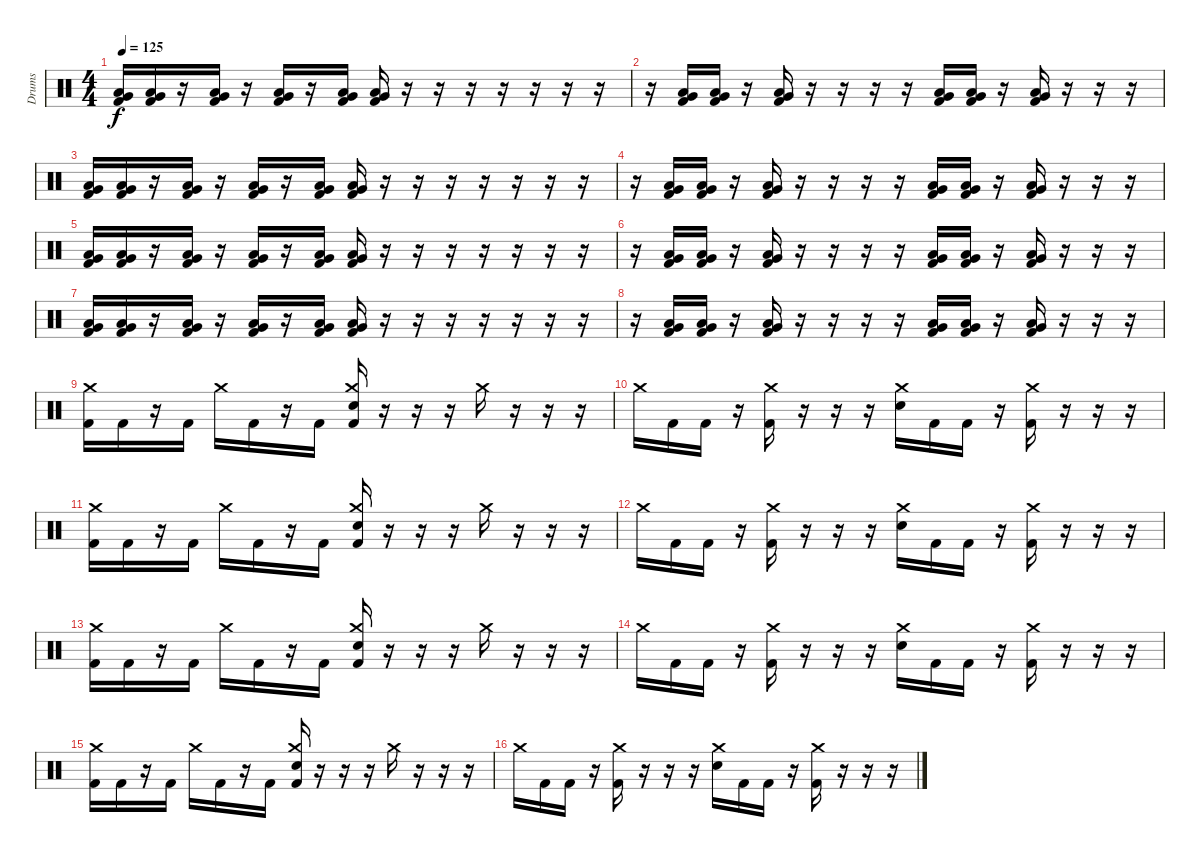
\track ("Drums" "Drums") {instrument percussion}
\staff {score}
\articulation defaults
\ts (4 4)
\tempo 125
\clef neutral
\ks c
("Very Low Tom (hit)" "Low Floor Tom (hit)" "Kick (hit) 2").16{dy f} ("Very Low Tom (hit)" "Low Floor Tom (hit)" "Kick (hit) 2").16 r.16 ("Very Low Tom (hit)" "Low Floor Tom (hit)" "Kick (hit) 2").16 r.16 ("Very Low Tom (hit)" "Low Floor Tom (hit)" "Kick (hit) 2").16 r.16 ("Very Low Tom (hit)" "Low Floor Tom (hit)" "Kick (hit) 2").16 ("Very Low Tom (hit)" "Low Floor Tom (hit)" "Kick (hit) 2").16 r.16 r.16 r.16 r.16 r.16 r.16 r.16 |
r.16 ("Very Low Tom (hit)" "Low Floor Tom (hit)" "Kick (hit) 2").16 ("Very Low Tom (hit)" "Low Floor Tom (hit)" "Kick (hit) 2").16 r.16 ("Very Low Tom (hit)" "Low Floor Tom (hit)" "Kick (hit) 2").16 r.16 r.16 r.16 r.16 ("Very Low Tom (hit)" "Low Floor Tom (hit)" "Kick (hit) 2").16 ("Very Low Tom (hit)" "Low Floor Tom (hit)" "Kick (hit) 2").16 r.16 ("Very Low Tom (hit)" "Low Floor Tom (hit)" "Kick (hit) 2").16 r.16 r.16 r.16 |
("Very Low Tom (hit)" "Low Floor Tom (hit)" "Kick (hit) 2").16 ("Very Low Tom (hit)" "Low Floor Tom (hit)" "Kick (hit) 2").16 r.16 ("Very Low Tom (hit)" "Low Floor Tom (hit)" "Kick (hit) 2").16 r.16 ("Very Low Tom (hit)" "Low Floor Tom (hit)" "Kick (hit) 2").16 r.16 ("Very Low Tom (hit)" "Low Floor Tom (hit)" "Kick (hit) 2").16 ("Very Low Tom (hit)" "Low Floor Tom (hit)" "Kick (hit) 2").16 r.16 r.16 r.16 r.16 r.16 r.16 r.16 |
r.16 ("Very Low Tom (hit)" "Low Floor Tom (hit)" "Kick (hit) 2").16 ("Very Low Tom (hit)" "Low Floor Tom (hit)" "Kick (hit) 2").16 r.16 ("Very Low Tom (hit)" "Low Floor Tom (hit)" "Kick (hit) 2").16 r.16 r.16 r.16 r.16 ("Very Low Tom (hit)" "Low Floor Tom (hit)" "Kick (hit) 2").16 ("Very Low Tom (hit)" "Low Floor Tom (hit)" "Kick (hit) 2").16 r.16 ("Very Low Tom (hit)" "Low Floor Tom (hit)" "Kick (hit) 2").16 r.16 r.16 r.16 |
("Very Low Tom (hit)" "Low Floor Tom (hit)" "Kick (hit) 2").16 ("Very Low Tom (hit)" "Low Floor Tom (hit)" "Kick (hit) 2").16 r.16 ("Very Low Tom (hit)" "Low Floor Tom (hit)" "Kick (hit) 2").16 r.16 ("Very Low Tom (hit)" "Low Floor Tom (hit)" "Kick (hit) 2").16 r.16 ("Very Low Tom (hit)" "Low Floor Tom (hit)" "Kick (hit) 2").16 ("Very Low Tom (hit)" "Low Floor Tom (hit)" "Kick (hit) 2").16 r.16 r.16 r.16 r.16 r.16 r.16 r.16 |
r.16 ("Very Low Tom (hit)" "Low Floor Tom (hit)" "Kick (hit) 2").16 ("Very Low Tom (hit)" "Low Floor Tom (hit)" "Kick (hit) 2").16 r.16 ("Very Low Tom (hit)" "Low Floor Tom (hit)" "Kick (hit) 2").16 r.16 r.16 r.16 r.16 ("Very Low Tom (hit)" "Low Floor Tom (hit)" "Kick (hit) 2").16 ("Very Low Tom (hit)" "Low Floor Tom (hit)" "Kick (hit) 2").16 r.16 ("Very Low Tom (hit)" "Low Floor Tom (hit)" "Kick (hit) 2").16 r.16 r.16 r.16 |
("Very Low Tom (hit)" "Low Floor Tom (hit)" "Kick (hit) 2").16 ("Very Low Tom (hit)" "Low Floor Tom (hit)" "Kick (hit) 2").16 r.16 ("Very Low Tom (hit)" "Low Floor Tom (hit)" "Kick (hit) 2").16 r.16 ("Very Low Tom (hit)" "Low Floor Tom (hit)" "Kick (hit) 2").16 r.16 ("Very Low Tom (hit)" "Low Floor Tom (hit)" "Kick (hit) 2").16 ("Very Low Tom (hit)" "Low Floor Tom (hit)" "Kick (hit) 2").16 r.16 r.16 r.16 r.16 r.16 r.16 r.16 |
r.16 ("Very Low Tom (hit)" "Low Floor Tom (hit)" "Kick (hit) 2").16 ("Very Low Tom (hit)" "Low Floor Tom (hit)" "Kick (hit) 2").16 r.16 ("Very Low Tom (hit)" "Low Floor Tom (hit)" "Kick (hit) 2").16 r.16 r.16 r.16 r.16 ("Very Low Tom (hit)" "Low Floor Tom (hit)" "Kick (hit) 2").16 ("Very Low Tom (hit)" "Low Floor Tom (hit)" "Kick (hit) 2").16 r.16 ("Very Low Tom (hit)" "Low Floor Tom (hit)" "Kick (hit) 2").16 r.16 r.16 r.16 |
("Crash medium (hit)" "Kick (hit) 2").16 "Kick (hit) 2".16 r.16 "Kick (hit) 2".16 "Crash medium (hit)".16 "Kick (hit) 2".16 r.16 "Kick (hit) 2".16 ("Crash medium (hit)" "Electric Snare (hit)" "Kick (hit) 2").16 r.16 r.16 r.16 "Crash medium (hit)".16 r.16 r.16 r.16 |
"Crash medium (hit)".16 "Kick (hit) 2".16 "Kick (hit) 2".16 r.16 ("Crash medium (hit)" "Kick (hit) 2").16 r.16 r.16 r.16 ("Crash medium (hit)" "Electric Snare (hit)").16 "Kick (hit) 2".16 "Kick (hit) 2".16 r.16 ("Crash medium (hit)" "Kick (hit) 2").16 r.16 r.16 r.16 |
("Crash medium (hit)" "Kick (hit) 2").16 "Kick (hit) 2".16 r.16 "Kick (hit) 2".16 "Crash medium (hit)".16 "Kick (hit) 2".16 r.16 "Kick (hit) 2".16 ("Crash medium (hit)" "Electric Snare (hit)" "Kick (hit) 2").16 r.16 r.16 r.16 "Crash medium (hit)".16 r.16 r.16 r.16 |
"Crash medium (hit)".16 "Kick (hit) 2".16 "Kick (hit) 2".16 r.16 ("Crash medium (hit)" "Kick (hit) 2").16 r.16 r.16 r.16 ("Crash medium (hit)" "Electric Snare (hit)").16 "Kick (hit) 2".16 "Kick (hit) 2".16 r.16 ("Crash medium (hit)" "Kick (hit) 2").16 r.16 r.16 r.16 |
("Crash medium (hit)" "Kick (hit) 2").16 "Kick (hit) 2".16 r.16 "Kick (hit) 2".16 "Crash medium (hit)".16 "Kick (hit) 2".16 r.16 "Kick (hit) 2".16 ("Crash medium (hit)" "Electric Snare (hit)" "Kick (hit) 2").16 r.16 r.16 r.16 "Crash medium (hit)".16 r.16 r.16 r.16 |
"Crash medium (hit)".16 "Kick (hit) 2".16 "Kick (hit) 2".16 r.16 ("Crash medium (hit)" "Kick (hit) 2").16 r.16 r.16 r.16 ("Crash medium (hit)" "Electric Snare (hit)").16 "Kick (hit) 2".16 "Kick (hit) 2".16 r.16 ("Crash medium (hit)" "Kick (hit) 2").16 r.16 r.16 r.16 |
("Crash medium (hit)" "Kick (hit) 2").16 "Kick (hit) 2".16 r.16 "Kick (hit) 2".16 "Crash medium (hit)".16 "Kick (hit) 2".16 r.16 "Kick (hit) 2".16 ("Crash medium (hit)" "Electric Snare (hit)" "Kick (hit) 2").16 r.16 r.16 r.16 "Crash medium (hit)".16 r.16 r.16 r.16 |
"Crash medium (hit)".16 "Kick (hit) 2".16 "Kick (hit) 2".16 r.16 ("Crash medium (hit)" "Kick (hit) 2").16 r.16 r.16 r.16 ("Crash medium (hit)" "Electric Snare (hit)").16 "Kick (hit) 2".16 "Kick (hit) 2".16 r.16 ("Crash medium (hit)" "Kick (hit) 2").16 r.16 r.16 r.16
